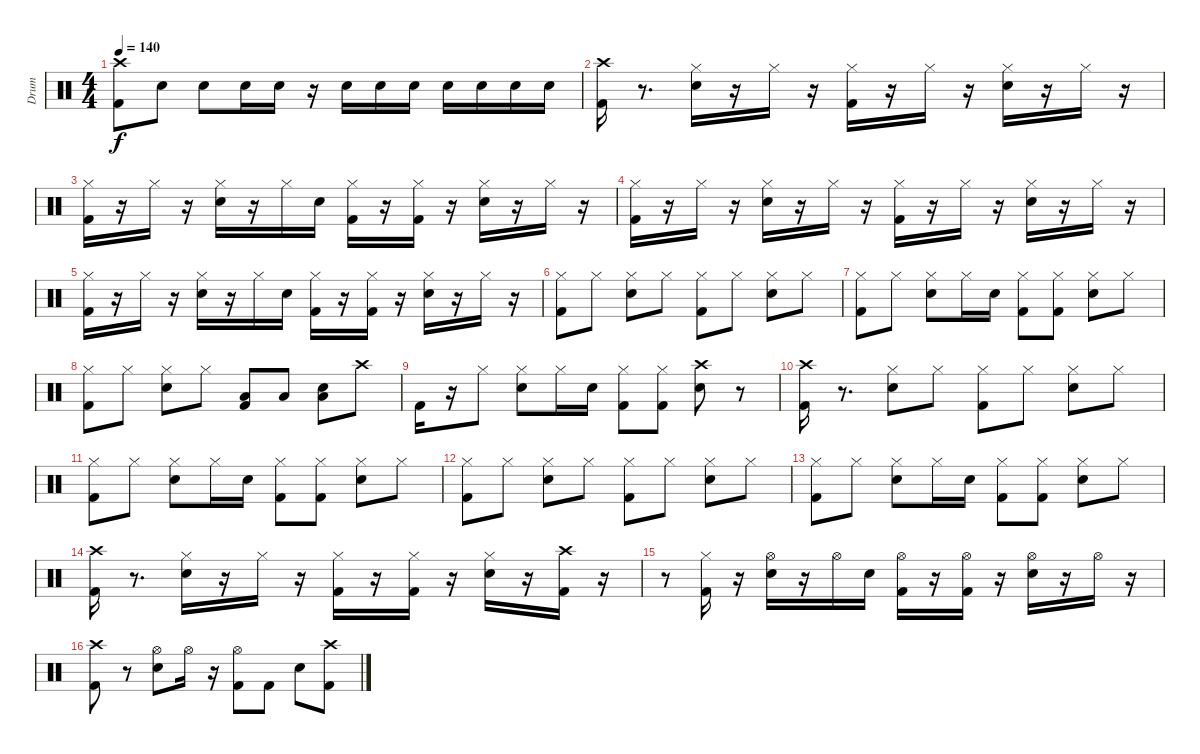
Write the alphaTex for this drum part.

\track ("Drum" "Drum") {instrument percussion}
\staff {score}
\articulation defaults
\ts (4 4)
\tempo 140
\clef neutral
\ks c
("Crash high (hit)" "Kick (hit) 2").8{dy f} "Electric Snare (hit)".8 "Electric Snare (hit)".8 "Electric Snare (hit)".16 "Electric Snare (hit)".16 r.16 "Electric Snare (hit)".16 "Electric Snare (hit)".16 "Electric Snare (hit)".16 "Electric Snare (hit)".16 "Electric Snare (hit)".16 "Electric Snare (hit)".16 "Electric Snare (hit)".16 |
("Crash high (hit)" "Kick (hit) 2").16 r.8{d} ("Electric Snare (hit)" "Hi-Hat (closed)").16 r.16 "Hi-Hat (closed)".16 r.16 ("Kick (hit) 2" "Hi-Hat (closed)").16 r.16 "Hi-Hat (closed)".16 r.16 ("Electric Snare (hit)" "Hi-Hat (closed)").16 r.16 "Hi-Hat (closed)".16 r.16 |
("Kick (hit) 2" "Hi-Hat (closed)").16 r.16 "Hi-Hat (closed)".16 r.16 ("Electric Snare (hit)" "Hi-Hat (closed)").16 r.16 "Hi-Hat (closed)".16 "Electric Snare (hit)".16 ("Kick (hit) 2" "Hi-Hat (closed)").16 r.16 ("Kick (hit) 2" "Hi-Hat (closed)").16 r.16 ("Electric Snare (hit)" "Hi-Hat (closed)").16 r.16 "Hi-Hat (closed)".16 r.16 |
("Kick (hit) 2" "Hi-Hat (closed)").16 r.16 "Hi-Hat (closed)".16 r.16 ("Electric Snare (hit)" "Hi-Hat (closed)").16 r.16 "Hi-Hat (closed)".16 r.16 ("Kick (hit) 2" "Hi-Hat (closed)").16 r.16 "Hi-Hat (closed)".16 r.16 ("Electric Snare (hit)" "Hi-Hat (closed)").16 r.16 "Hi-Hat (closed)".16 r.16 |
("Kick (hit) 2" "Hi-Hat (closed)").16 r.16 "Hi-Hat (closed)".16 r.16 ("Electric Snare (hit)" "Hi-Hat (closed)").16 r.16 "Hi-Hat (closed)".16 "Electric Snare (hit)".16 ("Kick (hit) 2" "Hi-Hat (closed)").16 r.16 ("Kick (hit) 2" "Hi-Hat (closed)").16 r.16 ("Electric Snare (hit)" "Hi-Hat (closed)").16 r.16 "Hi-Hat (closed)".16 r.16 |
("Kick (hit) 2" "Hi-Hat (closed)").8 "Hi-Hat (closed)".8 ("Electric Snare (hit)" "Hi-Hat (closed)").8 "Hi-Hat (closed)".8 ("Kick (hit) 2" "Hi-Hat (closed)").8 "Hi-Hat (closed)".8 ("Electric Snare (hit)" "Hi-Hat (closed)").8 "Hi-Hat (closed)".8 |
("Kick (hit) 2" "Hi-Hat (closed)").8 "Hi-Hat (closed)".8 ("Electric Snare (hit)" "Hi-Hat (closed)").8 "Hi-Hat (closed)".16 "Electric Snare (hit)".16 ("Kick (hit) 2" "Hi-Hat (closed)").8 ("Kick (hit) 2" "Hi-Hat (closed)").8 ("Electric Snare (hit)" "Hi-Hat (closed)").8 "Hi-Hat (closed)".8 |
("Kick (hit) 2" "Hi-Hat (closed)").8 "Hi-Hat (closed)".8 ("Electric Snare (hit)" "Hi-Hat (closed)").8 "Hi-Hat (closed)".8 ("Low Floor Tom (hit)" "Kick (hit) 2").8 "Low Floor Tom (hit)".8 ("Electric Snare (hit)" "Low Floor Tom (hit)").8 "Crash high (hit)".8 |
"Kick (hit) 2".16 r.16 "Hi-Hat (closed)".8 ("Electric Snare (hit)" "Hi-Hat (closed)").8 "Hi-Hat (closed)".16 "Electric Snare (hit)".16 ("Kick (hit) 2" "Hi-Hat (closed)").8 ("Kick (hit) 2" "Hi-Hat (closed)").8 ("Electric Snare (hit)" "Crash high (hit)").8 r.8 |
("Crash high (hit)" "Kick (hit) 2").16 r.8{d} ("Electric Snare (hit)" "Hi-Hat (closed)").8 "Hi-Hat (closed)".8 ("Kick (hit) 2" "Hi-Hat (closed)").8 "Hi-Hat (closed)".8 ("Electric Snare (hit)" "Hi-Hat (closed)").8 "Hi-Hat (closed)".8 |
("Kick (hit) 2" "Hi-Hat (closed)").8 "Hi-Hat (closed)".8 ("Electric Snare (hit)" "Hi-Hat (closed)").8 "Hi-Hat (closed)".16 "Electric Snare (hit)".16 ("Kick (hit) 2" "Hi-Hat (closed)").8 ("Kick (hit) 2" "Hi-Hat (closed)").8 ("Electric Snare (hit)" "Hi-Hat (closed)").8 "Hi-Hat (closed)".8 |
("Kick (hit) 2" "Hi-Hat (closed)").8 "Hi-Hat (closed)".8 ("Electric Snare (hit)" "Hi-Hat (closed)").8 "Hi-Hat (closed)".8 ("Kick (hit) 2" "Hi-Hat (closed)").8 "Hi-Hat (closed)".8 ("Electric Snare (hit)" "Hi-Hat (closed)").8 "Hi-Hat (closed)".8 |
("Kick (hit) 2" "Hi-Hat (closed)").8 "Hi-Hat (closed)".8 ("Electric Snare (hit)" "Hi-Hat (closed)").8 "Hi-Hat (closed)".16 "Electric Snare (hit)".16 ("Kick (hit) 2" "Hi-Hat (closed)").8 ("Kick (hit) 2" "Hi-Hat (closed)").8 ("Electric Snare (hit)" "Hi-Hat (closed)").8 "Hi-Hat (closed)".8 |
("Kick (hit) 2" "Crash high (hit)").16 r.8{d} ("Electric Snare (hit)" "Hi-Hat (closed)").16 r.16 "Hi-Hat (closed)".16 r.16 ("Kick (hit) 2" "Hi-Hat (closed)").16 r.16 ("Kick (hit) 2" "Hi-Hat (closed)").16 r.16 ("Electric Snare (hit)" "Hi-Hat (closed)").16 r.16 ("Kick (hit) 2" "Crash high (hit)").16 r.16 |
r.8 ("Kick (hit) 2" "Hi-Hat (closed)").16 r.16 ("Electric Snare (hit)" "Hi-Hat (open)").16 r.16 "Hi-Hat (open)".16 "Electric Snare (hit)".16 ("Kick (hit) 2" "Hi-Hat (open)").16 r.16 ("Kick (hit) 2" "Hi-Hat (open)").16 r.16 ("Electric Snare (hit)" "Hi-Hat (open)").16 r.16 "Hi-Hat (open)".16 r.16 |
("Kick (hit) 2" "Crash high (hit)").8 r.8 ("Electric Snare (hit)" "Hi-Hat (open)").8 "Hi-Hat (open)".16 r.16 ("Kick (hit) 2" "Hi-Hat (open)").8 "Kick (hit) 2".8 "Electric Snare (hit)".8 ("Kick (hit) 2" "Crash high (hit)").8
